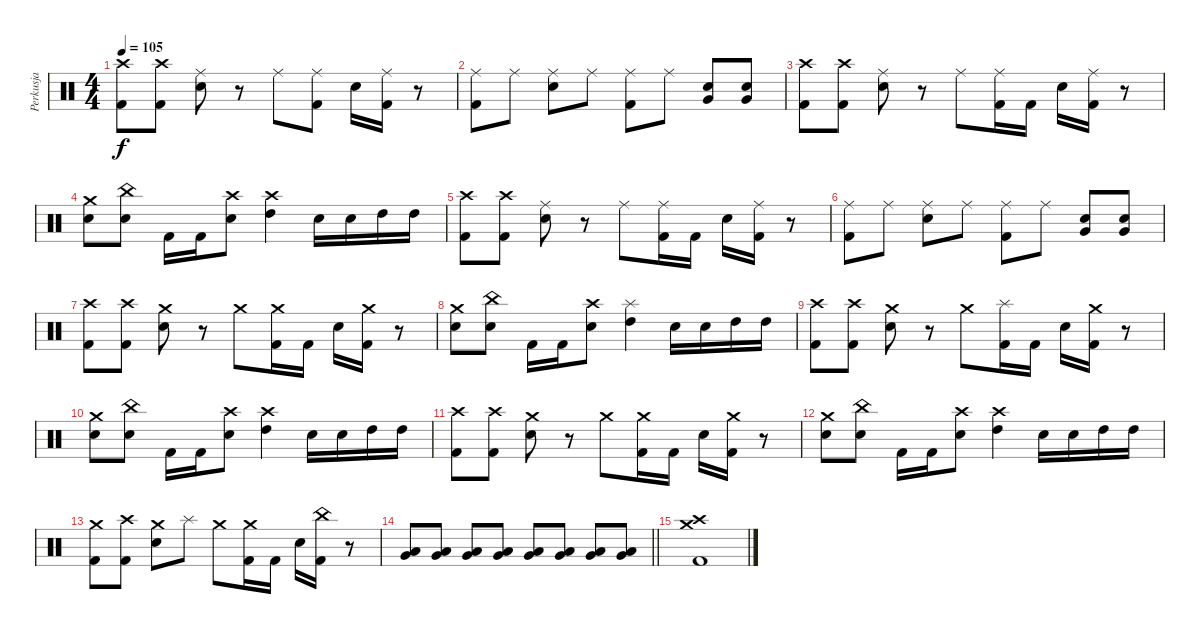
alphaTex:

\track ("Perkusja" "Perkusja") {instrument percussion}
\staff {score}
\articulation defaults
\ts (4 4)
\tempo 105
\clef neutral
\ks c
("Kick (hit) 2" "Crash high (hit)").8{dy f} ("Kick (hit) 2" "Crash high (hit)").8 ("Ride (middle)" "Snare (hit) 2").8 r.8 "Ride (middle)".8 ("Kick (hit) 2" "Ride (middle)").8 "Snare (hit) 2".16 ("Ride (middle)" "Kick (hit) 2").16 r.8 |
("Ride (middle)" "Kick (hit) 2").8 "Ride (middle)".8 ("Ride (middle)" "Snare (hit) 2").8 "Ride (middle)".8 ("Ride (middle)" "Kick (hit) 2").8 "Ride (middle)".8 ("Very Low Tom (hit)" "Snare (hit) 2").8 ("Very Low Tom (hit)" "Snare (hit) 2").8 |
("Kick (hit) 2" "Crash high (hit)").8 ("Kick (hit) 2" "Crash high (hit)").8 ("Ride (middle)" "Snare (hit) 2").8 r.8 "Ride (middle)".8 ("Kick (hit) 2" "Ride (middle)").16 "Kick (hit) 2".16 "Snare (hit) 2".16 ("Ride (middle)" "Kick (hit) 2").16 r.8 |
("Crash medium (hit)" "Snare (hit) 2").8 ("China (hit)" "Snare (hit) 2").8 "Kick (hit) 2".16 "Kick (hit) 2".16 ("Crash high (hit)" "Snare (hit) 2").8 ("Crash high (hit)" "High Tom (hit)").4 "Snare (hit) 2".16 "Snare (hit) 2".16 "High Tom (hit)".16 "High Tom (hit)".16 |
("Kick (hit) 2" "Crash high (hit)").8 ("Kick (hit) 2" "Crash high (hit)").8 ("Ride (middle)" "Snare (hit) 2").8 r.8 "Ride (middle)".8 ("Kick (hit) 2" "Ride (middle)").16 "Kick (hit) 2".16 "Snare (hit) 2".16 ("Ride (middle)" "Kick (hit) 2").16 r.8 |
("Ride (middle)" "Kick (hit) 2").8 "Ride (middle)".8 ("Ride (middle)" "Snare (hit) 2").8 "Ride (middle)".8 ("Ride (middle)" "Kick (hit) 2").8 "Ride (middle)".8 ("Very Low Tom (hit)" "Snare (hit) 2").8 ("Very Low Tom (hit)" "Snare (hit) 2").8 |
("Kick (hit) 2" "Crash high (hit)").8 ("Kick (hit) 2" "Crash high (hit)").8 ("Crash medium (hit)" "Snare (hit) 2").8 r.8 "Crash medium (hit)".8 ("Kick (hit) 2" "Crash medium (hit)").16 "Kick (hit) 2".16 "Snare (hit) 2".16 ("Crash medium (hit)" "Kick (hit) 2").16 r.8 |
("Crash medium (hit)" "Snare (hit) 2").8 ("China (hit)" "Snare (hit) 2").8 "Kick (hit) 2".16 "Kick (hit) 2".16 ("Crash high (hit)" "Snare (hit) 2").8 ("Splash (hit)" "High Tom (hit)").4 "Snare (hit) 2".16 "Snare (hit) 2".16 "High Tom (hit)".16 "High Tom (hit)".16 |
("Kick (hit) 2" "Crash high (hit)").8 ("Kick (hit) 2" "Crash high (hit)").8 ("Crash medium (hit)" "Snare (hit) 2").8 r.8 "Crash medium (hit)".8 ("Kick (hit) 2" "Splash (hit)").16 "Kick (hit) 2".16 "Snare (hit) 2".16 ("Crash medium (hit)" "Kick (hit) 2").16 r.8 |
("Crash medium (hit)" "Snare (hit) 2").8 ("China (hit)" "Snare (hit) 2").8 "Kick (hit) 2".16 "Kick (hit) 2".16 ("Crash high (hit)" "Snare (hit) 2").8 ("Crash high (hit)" "High Tom (hit)").4 "Snare (hit) 2".16 "Snare (hit) 2".16 "High Tom (hit)".16 "High Tom (hit)".16 |
("Kick (hit) 2" "Crash high (hit)").8 ("Kick (hit) 2" "Crash high (hit)").8 ("Crash medium (hit)" "Snare (hit) 2").8 r.8 "Crash medium (hit)".8 ("Kick (hit) 2" "Crash medium (hit)").16 "Kick (hit) 2".16 "Snare (hit) 2".16 ("Crash medium (hit)" "Kick (hit) 2").16 r.8 |
("Crash medium (hit)" "Snare (hit) 2").8 ("China (hit)" "Snare (hit) 2").8 "Kick (hit) 2".16 "Kick (hit) 2".16 ("Crash high (hit)" "Snare (hit) 2").8 ("Crash high (hit)" "High Tom (hit)").4 "Snare (hit) 2".16 "Snare (hit) 2".16 "High Tom (hit)".16 "High Tom (hit)".16 |
("Kick (hit) 2" "Crash medium (hit)").8 ("Kick (hit) 2" "Crash high (hit)").8 ("Crash medium (hit)" "Snare (hit) 2").8 "Splash (hit)".8 "Crash medium (hit)".8 ("Kick (hit) 2" "Crash medium (hit)").16 "Kick (hit) 2".16 "Snare (hit) 2".16 ("China (hit)" "Kick (hit) 2").16 r.8 |
\barLineRight lightlight
("Very Low Tom (hit)" "Low Floor Tom (hit)").8 ("Very Low Tom (hit)" "Low Floor Tom (hit)").8 ("Very Low Tom (hit)" "Low Floor Tom (hit)").8 ("Very Low Tom (hit)" "Low Floor Tom (hit)").8 ("Very Low Tom (hit)" "Low Floor Tom (hit)").8 ("Very Low Tom (hit)" "Low Floor Tom (hit)").8 ("Very Low Tom (hit)" "Low Floor Tom (hit)").8 ("Very Low Tom (hit)" "Low Floor Tom (hit)").8 |
("Crash medium (hit)" "Kick (hit) 2" "Crash high (hit)").1
